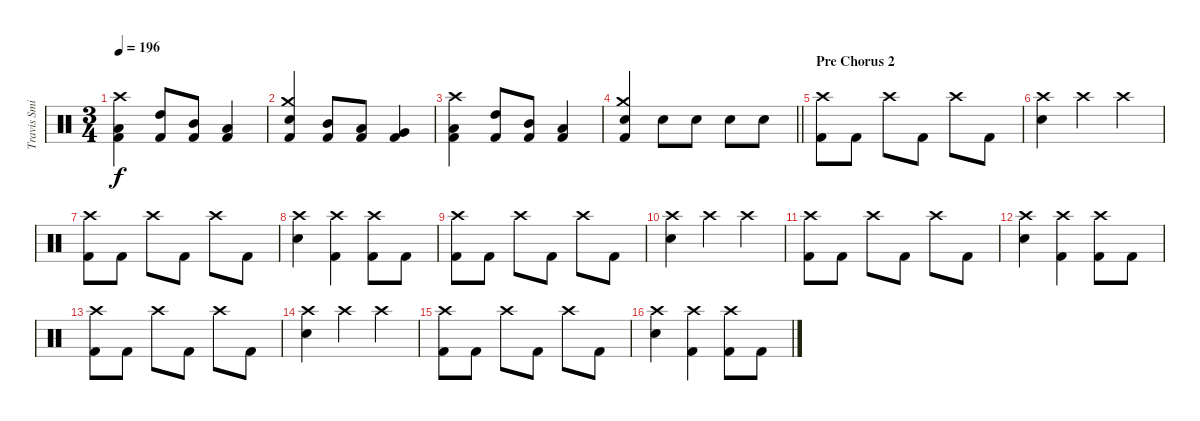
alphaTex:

\track ("Travis Smith" "Travis Smi") {instrument percussion}
\staff {score}
\articulation defaults
\ts (3 4)
\tempo 196
\clef neutral
\ks c
("Crash high (hit)" "Low Floor Tom (hit)" "Kick (hit) 2").4{dy f} ("High Tom (hit)" "Kick (hit) 2").8 ("Mid Tom (hit)" "Kick (hit) 2").8 ("Low Tom (hit)" "Kick (hit) 2").4 |
("Crash medium (hit)" "Electric Snare (hit)" "Kick (hit) 2").4 ("Mid Tom (hit)" "Kick (hit) 2").8 ("Low Tom (hit)" "Kick (hit) 2").8 ("Very Low Tom (hit)" "Kick (hit) 2").4 |
("Crash high (hit)" "Low Floor Tom (hit)" "Kick (hit) 2").4 ("High Tom (hit)" "Kick (hit) 2").8 ("Mid Tom (hit)" "Kick (hit) 2").8 ("Low Tom (hit)" "Kick (hit) 2").4 |
\barLineRight lightlight
("Crash medium (hit)" "Electric Snare (hit)" "Kick (hit) 2").4 "Electric Snare (hit)".8 "Electric Snare (hit)".8 "Electric Snare (hit)".8 "Electric Snare (hit)".8 |
\section ("" "Pre Chorus 2")
("Crash high (hit)" "Kick (hit) 2").8 "Kick (hit) 2".8 "Crash high (hit)".8 "Kick (hit) 2".8 "Crash high (hit)".8 "Kick (hit) 2".8 |
("Crash high (hit)" "Electric Snare (hit)").4 "Crash high (hit)".4 "Crash high (hit)".4 |
("Crash high (hit)" "Kick (hit) 2").8 "Kick (hit) 2".8 "Crash high (hit)".8 "Kick (hit) 2".8 "Crash high (hit)".8 "Kick (hit) 2".8 |
("Crash high (hit)" "Electric Snare (hit)").4 ("Crash high (hit)" "Kick (hit) 2").4 ("Crash high (hit)" "Kick (hit) 2").8 "Kick (hit) 2".8 |
("Crash high (hit)" "Kick (hit) 2").8 "Kick (hit) 2".8 "Crash high (hit)".8 "Kick (hit) 2".8 "Crash high (hit)".8 "Kick (hit) 2".8 |
("Crash high (hit)" "Electric Snare (hit)").4 "Crash high (hit)".4 "Crash high (hit)".4 |
("Crash high (hit)" "Kick (hit) 2").8 "Kick (hit) 2".8 "Crash high (hit)".8 "Kick (hit) 2".8 "Crash high (hit)".8 "Kick (hit) 2".8 |
("Crash high (hit)" "Electric Snare (hit)").4 ("Crash high (hit)" "Kick (hit) 2").4 ("Crash high (hit)" "Kick (hit) 2").8 "Kick (hit) 2".8 |
("Crash high (hit)" "Kick (hit) 2").8 "Kick (hit) 2".8 "Crash high (hit)".8 "Kick (hit) 2".8 "Crash high (hit)".8 "Kick (hit) 2".8 |
("Crash high (hit)" "Electric Snare (hit)").4 "Crash high (hit)".4 "Crash high (hit)".4 |
("Crash high (hit)" "Kick (hit) 2").8 "Kick (hit) 2".8 "Crash high (hit)".8 "Kick (hit) 2".8 "Crash high (hit)".8 "Kick (hit) 2".8 |
("Crash high (hit)" "Electric Snare (hit)").4 ("Crash high (hit)" "Kick (hit) 2").4 ("Crash high (hit)" "Kick (hit) 2").8 "Kick (hit) 2".8
